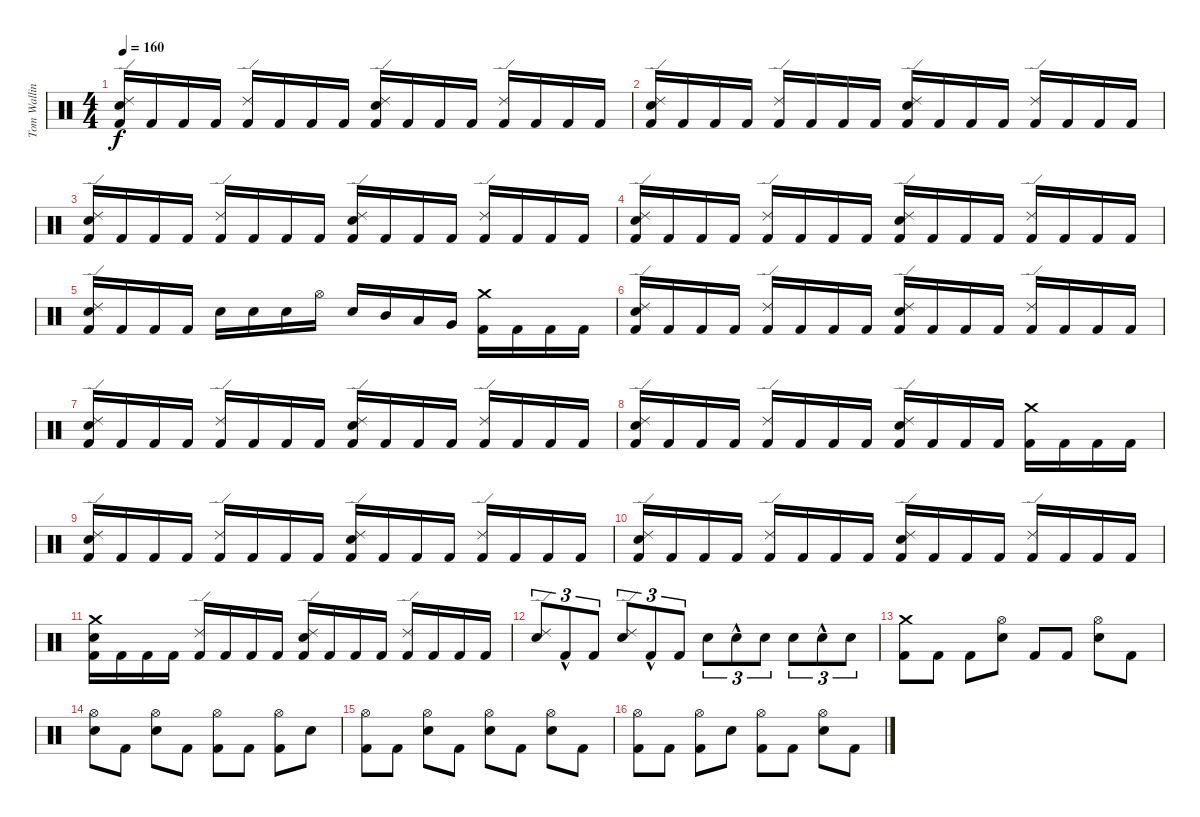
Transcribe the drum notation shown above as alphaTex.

\track ("Tom Walling (Drums)" "Tom Wallin") {instrument percussion}
\staff {score}
\articulation defaults
\ts (4 4)
\tempo 160
\clef neutral
\ks c
("Electric Snare (hit)" "Kick (hit) 2" "Ride (edge) 2").16{dy f} "Kick (hit) 2".16 "Kick (hit) 2".16 "Kick (hit) 2".16 ("Ride (edge) 2" "Kick (hit) 2").16 "Kick (hit) 2".16 "Kick (hit) 2".16 "Kick (hit) 2".16 ("Electric Snare (hit)" "Kick (hit) 2" "Ride (edge) 2").16 "Kick (hit) 2".16 "Kick (hit) 2".16 "Kick (hit) 2".16 ("Kick (hit) 2" "Ride (edge) 2").16 "Kick (hit) 2".16 "Kick (hit) 2".16 "Kick (hit) 2".16 |
("Electric Snare (hit)" "Kick (hit) 2" "Ride (edge) 2").16 "Kick (hit) 2".16 "Kick (hit) 2".16 "Kick (hit) 2".16 ("Kick (hit) 2" "Ride (edge) 2").16 "Kick (hit) 2".16 "Kick (hit) 2".16 "Kick (hit) 2".16 ("Electric Snare (hit)" "Kick (hit) 2" "Ride (edge) 2").16 "Kick (hit) 2".16 "Kick (hit) 2".16 "Kick (hit) 2".16 ("Ride (edge) 2" "Kick (hit) 2").16 "Kick (hit) 2".16 "Kick (hit) 2".16 "Kick (hit) 2".16 |
("Electric Snare (hit)" "Kick (hit) 2" "Ride (edge) 2").16 "Kick (hit) 2".16 "Kick (hit) 2".16 "Kick (hit) 2".16 ("Kick (hit) 2" "Ride (edge) 2").16 "Kick (hit) 2".16 "Kick (hit) 2".16 "Kick (hit) 2".16 ("Electric Snare (hit)" "Kick (hit) 2" "Ride (edge) 2").16 "Kick (hit) 2".16 "Kick (hit) 2".16 "Kick (hit) 2".16 ("Kick (hit) 2" "Ride (edge) 2").16 "Kick (hit) 2".16 "Kick (hit) 2".16 "Kick (hit) 2".16 |
("Electric Snare (hit)" "Kick (hit) 2" "Ride (edge) 2").16 "Kick (hit) 2".16 "Kick (hit) 2".16 "Kick (hit) 2".16 ("Ride (edge) 2" "Kick (hit) 2").16 "Kick (hit) 2".16 "Kick (hit) 2".16 "Kick (hit) 2".16 ("Electric Snare (hit)" "Kick (hit) 2" "Ride (edge) 2").16 "Kick (hit) 2".16 "Kick (hit) 2".16 "Kick (hit) 2".16 ("Kick (hit) 2" "Ride (edge) 2").16 "Kick (hit) 2".16 "Kick (hit) 2".16 "Kick (hit) 2".16 |
("Electric Snare (hit)" "Kick (hit) 2" "Ride (edge) 2").16 "Kick (hit) 2".16 "Kick (hit) 2".16 "Kick (hit) 2".16 "Electric Snare (hit)".16 "Electric Snare (hit)".16 "Electric Snare (hit)".16 "Hi-Hat (open)".16 "Electric Snare (hit)".16 "Mid Tom (hit)".16 "Low Tom (hit)".16 "Very Low Tom (hit)".16 ("Kick (hit) 2" "Crash medium (hit)").16 "Kick (hit) 2".16 "Kick (hit) 2".16 "Kick (hit) 2".16 |
("Electric Snare (hit)" "Kick (hit) 2" "Ride (edge) 2").16 "Kick (hit) 2".16 "Kick (hit) 2".16 "Kick (hit) 2".16 ("Kick (hit) 2" "Ride (edge) 2").16 "Kick (hit) 2".16 "Kick (hit) 2".16 "Kick (hit) 2".16 ("Electric Snare (hit)" "Kick (hit) 2" "Ride (edge) 2").16 "Kick (hit) 2".16 "Kick (hit) 2".16 "Kick (hit) 2".16 ("Kick (hit) 2" "Ride (edge) 2").16 "Kick (hit) 2".16 "Kick (hit) 2".16 "Kick (hit) 2".16 |
("Electric Snare (hit)" "Kick (hit) 2" "Ride (edge) 2").16 "Kick (hit) 2".16 "Kick (hit) 2".16 "Kick (hit) 2".16 ("Ride (edge) 2" "Kick (hit) 2").16 "Kick (hit) 2".16 "Kick (hit) 2".16 "Kick (hit) 2".16 ("Electric Snare (hit)" "Kick (hit) 2" "Ride (edge) 2").16 "Kick (hit) 2".16 "Kick (hit) 2".16 "Kick (hit) 2".16 ("Kick (hit) 2" "Ride (edge) 2").16 "Kick (hit) 2".16 "Kick (hit) 2".16 "Kick (hit) 2".16 |
("Electric Snare (hit)" "Kick (hit) 2" "Ride (edge) 2").16 "Kick (hit) 2".16 "Kick (hit) 2".16 "Kick (hit) 2".16 ("Kick (hit) 2" "Ride (edge) 2").16 "Kick (hit) 2".16 "Kick (hit) 2".16 "Kick (hit) 2".16 ("Electric Snare (hit)" "Kick (hit) 2" "Ride (edge) 2").16 "Kick (hit) 2".16 "Kick (hit) 2".16 "Kick (hit) 2".16 ("Kick (hit) 2" "Crash medium (hit)").16 "Kick (hit) 2".16 "Kick (hit) 2".16 "Kick (hit) 2".16 |
("Electric Snare (hit)" "Kick (hit) 2" "Ride (edge) 2").16 "Kick (hit) 2".16 "Kick (hit) 2".16 "Kick (hit) 2".16 ("Kick (hit) 2" "Ride (edge) 2").16 "Kick (hit) 2".16 "Kick (hit) 2".16 "Kick (hit) 2".16 ("Electric Snare (hit)" "Kick (hit) 2" "Ride (edge) 2").16 "Kick (hit) 2".16 "Kick (hit) 2".16 "Kick (hit) 2".16 ("Kick (hit) 2" "Ride (edge) 2").16 "Kick (hit) 2".16 "Kick (hit) 2".16 "Kick (hit) 2".16 |
("Electric Snare (hit)" "Kick (hit) 2" "Ride (edge) 2").16 "Kick (hit) 2".16 "Kick (hit) 2".16 "Kick (hit) 2".16 ("Ride (edge) 2" "Kick (hit) 2").16 "Kick (hit) 2".16 "Kick (hit) 2".16 "Kick (hit) 2".16 ("Electric Snare (hit)" "Kick (hit) 2" "Ride (edge) 2").16 "Kick (hit) 2".16 "Kick (hit) 2".16 "Kick (hit) 2".16 ("Kick (hit) 2" "Ride (edge) 2").16 "Kick (hit) 2".16 "Kick (hit) 2".16 "Kick (hit) 2".16 |
("Crash medium (hit)" "Electric Snare (hit)" "Kick (hit) 2").16 "Kick (hit) 2".16 "Kick (hit) 2".16 "Kick (hit) 2".16 ("Kick (hit) 2" "Ride (edge) 2").16 "Kick (hit) 2".16 "Kick (hit) 2".16 "Kick (hit) 2".16 ("Electric Snare (hit)" "Kick (hit) 2" "Ride (edge) 2").16 "Kick (hit) 2".16 "Kick (hit) 2".16 "Kick (hit) 2".16 ("Ride (edge) 2" "Kick (hit) 2").16 "Kick (hit) 2".16 "Kick (hit) 2".16 "Kick (hit) 2".16 |
("Ride (edge) 2" "Electric Snare (hit)").8{tu (3 2)} "Kick (hit) 2"{hac}.8{tu (3 2)} "Kick (hit) 2".8{tu (3 2)} ("Ride (edge) 2" "Electric Snare (hit)").8{tu (3 2)} "Kick (hit) 2"{hac}.8{tu (3 2)} "Kick (hit) 2".8{tu (3 2)} "Electric Snare (hit)".8{tu (3 2)} "Electric Snare (hit)"{hac}.8{tu (3 2)} "Electric Snare (hit)".8{tu (3 2)} "Electric Snare (hit)".8{tu (3 2)} "Electric Snare (hit)"{hac}.8{tu (3 2)} "Electric Snare (hit)".8{tu (3 2)} |
("Crash medium (hit)" "Kick (hit) 2").8{volume 16 balance 8} "Kick (hit) 2".8 "Kick (hit) 2".8 ("Hi-Hat (open)" "Electric Snare (hit)").8 "Kick (hit) 2".8 "Kick (hit) 2".8 ("Hi-Hat (open)" "Electric Snare (hit)").8 "Kick (hit) 2".8 |
("Hi-Hat (open)" "Electric Snare (hit)").8 "Kick (hit) 2".8 ("Hi-Hat (open)" "Electric Snare (hit)").8 "Kick (hit) 2".8 ("Kick (hit) 2" "Hi-Hat (open)").8 "Kick (hit) 2".8 ("Kick (hit) 2" "Hi-Hat (open)").8 "Electric Snare (hit)".8 |
("Kick (hit) 2" "Hi-Hat (open)").8 "Kick (hit) 2".8 ("Electric Snare (hit)" "Hi-Hat (open)").8 "Kick (hit) 2".8 ("Electric Snare (hit)" "Hi-Hat (open)").8 "Kick (hit) 2".8 ("Electric Snare (hit)" "Hi-Hat (open)").8 "Kick (hit) 2".8 |
("Kick (hit) 2" "Hi-Hat (open)").8 "Kick (hit) 2".8 ("Kick (hit) 2" "Hi-Hat (open)").8 "Electric Snare (hit)".8 ("Kick (hit) 2" "Hi-Hat (open)").8 "Kick (hit) 2".8 ("Electric Snare (hit)" "Hi-Hat (open)").8 "Kick (hit) 2".8
